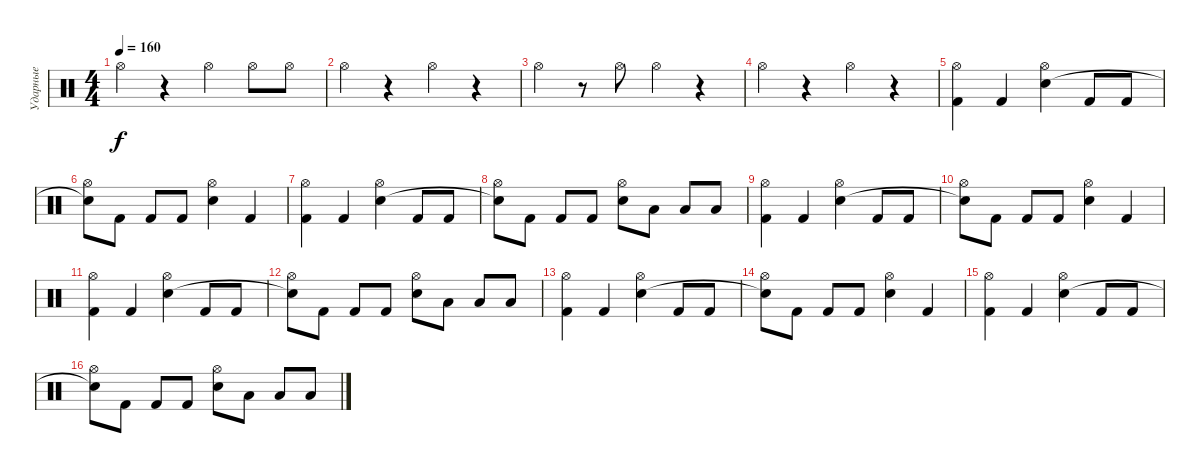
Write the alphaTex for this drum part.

\track ("Ударные" "Ударные") {instrument percussion}
\staff {score}
\articulation defaults
\ts (4 4)
\tempo 160
\clef neutral
\ks c "Hi-Hat (open)".4{dy f}
r.4 "Hi-Hat (open)".4 "Hi-Hat (open)".8 "Hi-Hat (open)".8 |
"Hi-Hat (open)".4 r.4 "Hi-Hat (open)".4 r.4 |
"Hi-Hat (open)".4 r.8 "Hi-Hat (open)".8 "Hi-Hat (open)".4 r.4 |
"Hi-Hat (open)".4 r.4 "Hi-Hat (open)".4 r.4 |
("Hi-Hat (open)" "Kick (hit) 2").4 "Kick (hit) 2".4 ("Hi-Hat (open)" "Electric Snare (hit)").4 "Kick (hit) 2".8 "Kick (hit) 2".8 |
("Hi-Hat (open)" "Snare (hit)"{t}).8 "Kick (hit) 2".8 "Kick (hit) 2".8 "Kick (hit) 2".8 ("Hi-Hat (open)" "Electric Snare (hit)").4 "Kick (hit) 2".4 |
("Hi-Hat (open)" "Kick (hit) 2").4 "Kick (hit) 2".4 ("Hi-Hat (open)" "Electric Snare (hit)").4 "Kick (hit) 2".8 "Kick (hit) 2".8 |
("Hi-Hat (open)" "Snare (hit)"{t}).8 "Kick (hit) 2".8 "Kick (hit) 2".8 "Kick (hit) 2".8 ("Hi-Hat (open)" "Electric Snare (hit)").8 "Low Tom (hit)".8 "Low Tom (hit)".8 "Low Tom (hit)".8 |
("Hi-Hat (open)" "Kick (hit) 2").4 "Kick (hit) 2".4 ("Hi-Hat (open)" "Electric Snare (hit)").4 "Kick (hit) 2".8 "Kick (hit) 2".8 |
("Hi-Hat (open)" "Snare (hit)"{t}).8 "Kick (hit) 2".8 "Kick (hit) 2".8 "Kick (hit) 2".8 ("Hi-Hat (open)" "Electric Snare (hit)").4 "Kick (hit) 2".4 |
("Hi-Hat (open)" "Kick (hit) 2").4 "Kick (hit) 2".4 ("Hi-Hat (open)" "Electric Snare (hit)").4 "Kick (hit) 2".8 "Kick (hit) 2".8 |
("Hi-Hat (open)" "Snare (hit)"{t}).8 "Kick (hit) 2".8 "Kick (hit) 2".8 "Kick (hit) 2".8 ("Hi-Hat (open)" "Electric Snare (hit)").8 "Low Tom (hit)".8 "Low Tom (hit)".8 "Low Tom (hit)".8 |
("Hi-Hat (open)" "Kick (hit) 2").4 "Kick (hit) 2".4 ("Hi-Hat (open)" "Electric Snare (hit)").4 "Kick (hit) 2".8 "Kick (hit) 2".8 |
("Hi-Hat (open)" "Snare (hit)"{t}).8 "Kick (hit) 2".8 "Kick (hit) 2".8 "Kick (hit) 2".8 ("Hi-Hat (open)" "Electric Snare (hit)").4 "Kick (hit) 2".4 |
("Hi-Hat (open)" "Kick (hit) 2").4 "Kick (hit) 2".4 ("Hi-Hat (open)" "Electric Snare (hit)").4 "Kick (hit) 2".8 "Kick (hit) 2".8 |
("Hi-Hat (open)" "Snare (hit)"{t}).8 "Kick (hit) 2".8 "Kick (hit) 2".8 "Kick (hit) 2".8 ("Hi-Hat (open)" "Electric Snare (hit)").8 "Low Tom (hit)".8 "Low Tom (hit)".8 "Low Tom (hit)".8
